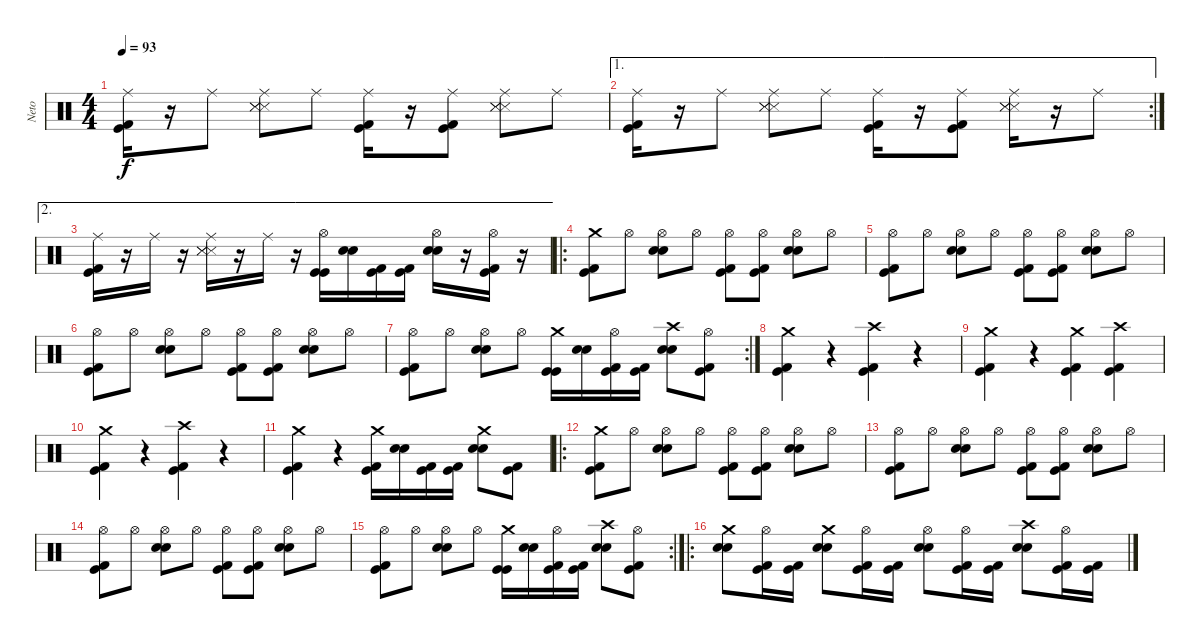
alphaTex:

\track ("Neto" "Neto") {instrument percussion}
\staff {score}
\articulation defaults
\ts (4 4)
\tempo 93
\clef neutral
\ks c
("Ride (middle)" "Kick (hit)" "Kick (hit) 2").16{dy f} r.16 "Ride (middle)".8 ("Ride (middle)" "Snare (side stick) 3" "Snare (side stick) 3" "Snare (side stick) 3").8 "Ride (middle)".8 ("Ride (middle)" "Kick (hit)" "Kick (hit) 2").16 r.16 ("Ride (middle)" "Kick (hit)" "Kick (hit) 2").8 ("Ride (middle)" "Snare (side stick) 3" "Snare (side stick) 3" "Snare (side stick) 3").8 "Ride (middle)".8 |
\ae 1
\rc 2
("Ride (middle)" "Kick (hit)" "Kick (hit) 2").16 r.16 "Ride (middle)".8 ("Ride (middle)" "Snare (side stick) 3" "Snare (side stick) 3" "Snare (side stick) 3").8 "Ride (middle)".8 ("Ride (middle)" "Kick (hit)" "Kick (hit) 2").16 r.16 ("Ride (middle)" "Kick (hit)" "Kick (hit) 2").8 ("Ride (middle)" "Snare (side stick) 3" "Snare (side stick) 3" "Snare (side stick) 3").16 r.16 "Ride (middle)".8 |
\ae 2
("Ride (middle)" "Kick (hit)" "Kick (hit) 2").16 r.16 "Ride (middle)".16 r.16 ("Ride (middle)" "Snare (side stick) 3" "Snare (side stick) 3" "Snare (side stick) 3").16 r.16 "Ride (middle)".16 r.16 ("Hi-Hat (open)" "Kick (hit)" "Kick (hit)").16 ("Snare (hit) 2" "Snare (hit) 2").16 ("Kick (hit)" "Kick (hit) 2").16 ("Kick (hit)" "Kick (hit) 2").16 ("Hi-Hat (open)" "Snare (hit) 2" "Snare (hit) 2").16 r.16 ("Hi-Hat (open)" "Kick (hit)" "Kick (hit) 2").16 r.16 |
\ro
("Crash medium (hit)" "Kick (hit)" "Kick (hit) 2").8 "Hi-Hat (open)".8 ("Hi-Hat (open)" "Snare (hit) 2" "Snare (hit) 2").8 "Hi-Hat (open)".8 ("Hi-Hat (open)" "Kick (hit)" "Kick (hit) 2").8 ("Hi-Hat (open)" "Kick (hit)" "Kick (hit) 2").8 ("Hi-Hat (open)" "Snare (hit) 2" "Snare (hit) 2").8 "Hi-Hat (open)".8 |
("Hi-Hat (open)" "Kick (hit)" "Kick (hit) 2").8 "Hi-Hat (open)".8 ("Hi-Hat (open)" "Snare (hit) 2" "Snare (hit) 2").8 "Hi-Hat (open)".8 ("Hi-Hat (open)" "Kick (hit)" "Kick (hit) 2").8 ("Hi-Hat (open)" "Kick (hit)" "Kick (hit) 2").8 ("Hi-Hat (open)" "Snare (hit) 2" "Snare (hit) 2").8 "Hi-Hat (open)".8 |
("Hi-Hat (open)" "Kick (hit)" "Kick (hit) 2").8 "Hi-Hat (open)".8 ("Hi-Hat (open)" "Snare (hit) 2" "Snare (hit) 2").8 "Hi-Hat (open)".8 ("Hi-Hat (open)" "Kick (hit)" "Kick (hit) 2").8 ("Hi-Hat (open)" "Kick (hit)" "Kick (hit) 2").8 ("Hi-Hat (open)" "Snare (hit) 2" "Snare (hit) 2").8 "Hi-Hat (open)".8 |
\rc 2
("Hi-Hat (open)" "Kick (hit)" "Kick (hit) 2").8 "Hi-Hat (open)".8 ("Hi-Hat (open)" "Snare (hit) 2" "Snare (hit) 2").8 "Hi-Hat (open)".8 ("Crash medium (hit)" "Kick (hit)" "Kick (hit)").16 ("Snare (hit) 2" "Snare (hit) 2").16 ("Hi-Hat (open)" "Kick (hit)" "Kick (hit) 2").16 ("Kick (hit)" "Kick (hit) 2").16 ("Crash high (hit)" "Snare (hit) 2" "Snare (hit) 2").8 ("Hi-Hat (open)" "Kick (hit)" "Kick (hit) 2").8 |
("Crash medium (hit)" "Kick (hit)" "Kick (hit) 2").4 r.4 ("Crash high (hit)" "Kick (hit)" "Kick (hit) 2").4 r.4 |
("Crash medium (hit)" "Kick (hit)" "Kick (hit) 2").4 r.4 ("Crash medium (hit)" "Kick (hit)" "Kick (hit) 2").4 ("Crash high (hit)" "Kick (hit)" "Kick (hit) 2").4 |
("Crash medium (hit)" "Kick (hit)" "Kick (hit) 2").4 r.4 ("Crash high (hit)" "Kick (hit)" "Kick (hit) 2").4 r.4 |
("Crash medium (hit)" "Kick (hit)" "Kick (hit) 2").4 r.4 ("Crash medium (hit)" "Kick (hit)" "Kick (hit) 2").16 ("Snare (hit) 2" "Snare (hit) 2").16 ("Kick (hit)" "Kick (hit) 2").16 ("Kick (hit)" "Kick (hit) 2").16 ("Crash medium (hit)" "Snare (hit) 2" "Snare (hit) 2").8 ("Kick (hit)" "Kick (hit) 2").8 |
\ro
("Crash medium (hit)" "Kick (hit)" "Kick (hit) 2").8 "Hi-Hat (open)".8 ("Hi-Hat (open)" "Snare (hit) 2" "Snare (hit) 2").8 "Hi-Hat (open)".8 ("Hi-Hat (open)" "Kick (hit)" "Kick (hit) 2").8 ("Hi-Hat (open)" "Kick (hit)" "Kick (hit) 2").8 ("Hi-Hat (open)" "Snare (hit) 2" "Snare (hit) 2").8 "Hi-Hat (open)".8 |
("Hi-Hat (open)" "Kick (hit)" "Kick (hit) 2").8 "Hi-Hat (open)".8 ("Hi-Hat (open)" "Snare (hit) 2" "Snare (hit) 2").8 "Hi-Hat (open)".8 ("Hi-Hat (open)" "Kick (hit)" "Kick (hit) 2").8 ("Hi-Hat (open)" "Kick (hit)" "Kick (hit) 2").8 ("Hi-Hat (open)" "Snare (hit) 2" "Snare (hit) 2").8 "Hi-Hat (open)".8 |
("Hi-Hat (open)" "Kick (hit)" "Kick (hit) 2").8 "Hi-Hat (open)".8 ("Hi-Hat (open)" "Snare (hit) 2" "Snare (hit) 2").8 "Hi-Hat (open)".8 ("Hi-Hat (open)" "Kick (hit)" "Kick (hit) 2").8 ("Hi-Hat (open)" "Kick (hit)" "Kick (hit) 2").8 ("Hi-Hat (open)" "Snare (hit) 2" "Snare (hit) 2").8 "Hi-Hat (open)".8 |
\rc 2
("Hi-Hat (open)" "Kick (hit)" "Kick (hit) 2").8 "Hi-Hat (open)".8 ("Hi-Hat (open)" "Snare (hit) 2" "Snare (hit) 2").8 "Hi-Hat (open)".8 ("Crash medium (hit)" "Kick (hit)" "Kick (hit)").16 ("Snare (hit) 2" "Snare (hit) 2").16 ("Hi-Hat (open)" "Kick (hit)" "Kick (hit) 2").16 ("Kick (hit)" "Kick (hit) 2").16 ("Crash high (hit)" "Snare (hit) 2" "Snare (hit) 2").8 ("Hi-Hat (open)" "Kick (hit)" "Kick (hit) 2").8 |
\ro
("Crash medium (hit)" "Snare (hit) 2" "Snare (hit) 2").8 ("Hi-Hat (open)" "Kick (hit)" "Kick (hit) 2").16 ("Kick (hit)" "Kick (hit) 2").16 ("Crash medium (hit)" "Snare (hit) 2" "Snare (hit) 2").8 ("Hi-Hat (open)" "Kick (hit)" "Kick (hit) 2").16 ("Kick (hit)" "Kick (hit) 2").16 ("Hi-Hat (open)" "Snare (hit) 2" "Snare (hit) 2").8 ("Hi-Hat (open)" "Kick (hit)" "Kick (hit) 2").16 ("Kick (hit)" "Kick (hit) 2").16 ("Crash high (hit)" "Snare (hit) 2" "Snare (hit) 2").8 ("Hi-Hat (open)" "Kick (hit)" "Kick (hit) 2").16 ("Kick (hit)" "Kick (hit) 2").16
